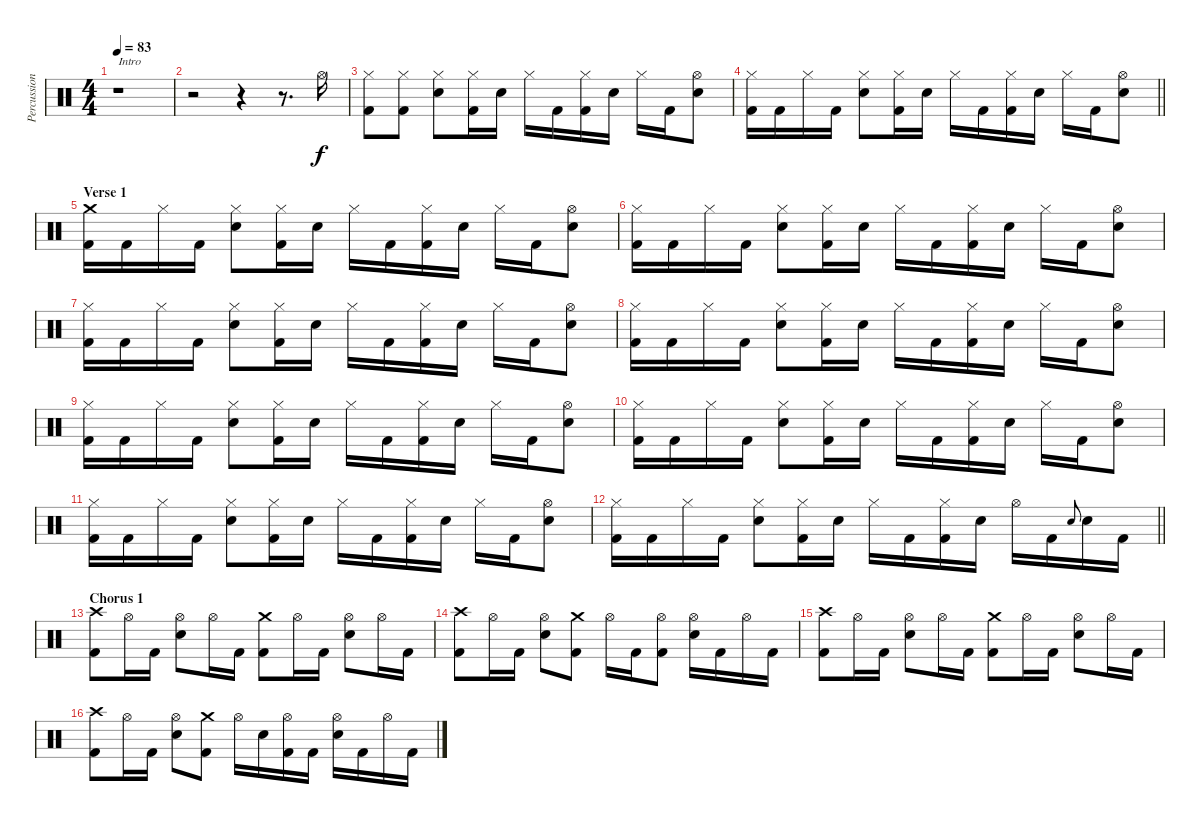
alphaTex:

\track ("Percussion" "Percussion") {instrument percussion}
\staff {score}
\articulation defaults
\ts (4 4)
\tempo 83
\clef neutral
\ks c
r.1{txt "Intro" dy f} |
r.2 r.4 r.8{d} "Hi-Hat (open)".16 |
("Hi-Hat (closed)" "Kick (hit) 2").8 ("Hi-Hat (closed)" "Kick (hit) 2").8 ("Hi-Hat (closed)" "Electric Snare (hit)").8 ("Hi-Hat (closed)" "Kick (hit) 2").16 "Electric Snare (hit)".16 "Hi-Hat (closed)".16 "Kick (hit) 2".16 ("Hi-Hat (closed)" "Kick (hit) 2").16 "Electric Snare (hit)".16 "Hi-Hat (closed)".16 "Kick (hit) 2".16 ("Hi-Hat (open)" "Electric Snare (hit)").8 |
\barLineRight lightlight
("Hi-Hat (closed)" "Kick (hit) 2").16 "Kick (hit) 2".16 "Hi-Hat (closed)".16 "Kick (hit) 2".16 ("Hi-Hat (closed)" "Electric Snare (hit)").8 ("Hi-Hat (closed)" "Kick (hit) 2").16 "Electric Snare (hit)".16 "Hi-Hat (closed)".16 "Kick (hit) 2".16 ("Hi-Hat (closed)" "Kick (hit) 2").16 "Electric Snare (hit)".16 "Hi-Hat (closed)".16 "Kick (hit) 2".16 ("Hi-Hat (open)" "Electric Snare (hit)").8 |
\section ("" "Verse 1")
("Crash medium (hit)" "Kick (hit) 2").16 "Kick (hit) 2".16 "Hi-Hat (closed)".16 "Kick (hit) 2".16 ("Hi-Hat (closed)" "Electric Snare (hit)").8 ("Hi-Hat (closed)" "Kick (hit) 2").16 "Electric Snare (hit)".16 "Hi-Hat (closed)".16 "Kick (hit) 2".16 ("Hi-Hat (closed)" "Kick (hit) 2").16 "Electric Snare (hit)".16 "Hi-Hat (closed)".16 "Kick (hit) 2".16 ("Hi-Hat (open)" "Electric Snare (hit)").8 |
("Hi-Hat (closed)" "Kick (hit) 2").16 "Kick (hit) 2".16 "Hi-Hat (closed)".16 "Kick (hit) 2".16 ("Hi-Hat (closed)" "Electric Snare (hit)").8 ("Hi-Hat (closed)" "Kick (hit) 2").16 "Electric Snare (hit)".16 "Hi-Hat (closed)".16 "Kick (hit) 2".16 ("Hi-Hat (closed)" "Kick (hit) 2").16 "Electric Snare (hit)".16 "Hi-Hat (closed)".16 "Kick (hit) 2".16 ("Hi-Hat (open)" "Electric Snare (hit)").8 |
("Hi-Hat (closed)" "Kick (hit) 2").16 "Kick (hit) 2".16 "Hi-Hat (closed)".16 "Kick (hit) 2".16 ("Hi-Hat (closed)" "Electric Snare (hit)").8 ("Hi-Hat (closed)" "Kick (hit) 2").16 "Electric Snare (hit)".16 "Hi-Hat (closed)".16 "Kick (hit) 2".16 ("Hi-Hat (closed)" "Kick (hit) 2").16 "Electric Snare (hit)".16 "Hi-Hat (closed)".16 "Kick (hit) 2".16 ("Hi-Hat (open)" "Electric Snare (hit)").8 |
("Hi-Hat (closed)" "Kick (hit) 2").16 "Kick (hit) 2".16 "Hi-Hat (closed)".16 "Kick (hit) 2".16 ("Hi-Hat (closed)" "Electric Snare (hit)").8 ("Hi-Hat (closed)" "Kick (hit) 2").16 "Electric Snare (hit)".16 "Hi-Hat (closed)".16 "Kick (hit) 2".16 ("Hi-Hat (closed)" "Kick (hit) 2").16 "Electric Snare (hit)".16 "Hi-Hat (closed)".16 "Kick (hit) 2".16 ("Hi-Hat (open)" "Electric Snare (hit)").8 |
("Hi-Hat (closed)" "Kick (hit) 2").16 "Kick (hit) 2".16 "Hi-Hat (closed)".16 "Kick (hit) 2".16 ("Hi-Hat (closed)" "Electric Snare (hit)").8 ("Hi-Hat (closed)" "Kick (hit) 2").16 "Electric Snare (hit)".16 "Hi-Hat (closed)".16 "Kick (hit) 2".16 ("Hi-Hat (closed)" "Kick (hit) 2").16 "Electric Snare (hit)".16 "Hi-Hat (closed)".16 "Kick (hit) 2".16 ("Hi-Hat (open)" "Electric Snare (hit)").8 |
("Hi-Hat (closed)" "Kick (hit) 2").16 "Kick (hit) 2".16 "Hi-Hat (closed)".16 "Kick (hit) 2".16 ("Hi-Hat (closed)" "Electric Snare (hit)").8 ("Hi-Hat (closed)" "Kick (hit) 2").16 "Electric Snare (hit)".16 "Hi-Hat (closed)".16 "Kick (hit) 2".16 ("Hi-Hat (closed)" "Kick (hit) 2").16 "Electric Snare (hit)".16 "Hi-Hat (closed)".16 "Kick (hit) 2".16 ("Hi-Hat (open)" "Electric Snare (hit)").8 |
("Hi-Hat (closed)" "Kick (hit) 2").16 "Kick (hit) 2".16 "Hi-Hat (closed)".16 "Kick (hit) 2".16 ("Hi-Hat (closed)" "Electric Snare (hit)").8 ("Hi-Hat (closed)" "Kick (hit) 2").16 "Electric Snare (hit)".16 "Hi-Hat (closed)".16 "Kick (hit) 2".16 ("Hi-Hat (closed)" "Kick (hit) 2").16 "Electric Snare (hit)".16 "Hi-Hat (closed)".16 "Kick (hit) 2".16 ("Hi-Hat (open)" "Electric Snare (hit)").8 |
\barLineRight lightlight
("Hi-Hat (closed)" "Kick (hit) 2").16 "Kick (hit) 2".16 "Hi-Hat (closed)".16 "Kick (hit) 2".16 ("Hi-Hat (closed)" "Electric Snare (hit)").8 ("Hi-Hat (closed)" "Kick (hit) 2").16 "Electric Snare (hit)".16 "Hi-Hat (closed)".16 "Kick (hit) 2".16 ("Hi-Hat (closed)" "Kick (hit) 2").16 "Electric Snare (hit)".16 "Hi-Hat (open)".16 "Kick (hit) 2".16 "Electric Snare (hit)".8{gr onbeat} "Electric Snare (hit)".16 "Kick (hit) 2".16 |
\section ("" "Chorus 1")
("Crash high (hit)" "Kick (hit) 2").8 "Hi-Hat (open)".16 "Kick (hit) 2".16 ("Hi-Hat (open)" "Electric Snare (hit)").8 "Hi-Hat (open)".16 "Kick (hit) 2".16 ("Crash medium (hit)" "Kick (hit) 2").8 "Hi-Hat (open)".16 "Kick (hit) 2".16 ("Hi-Hat (open)" "Electric Snare (hit)").8 "Hi-Hat (open)".16 "Kick (hit) 2".16 |
("Crash high (hit)" "Kick (hit) 2").8 "Hi-Hat (open)".16 "Kick (hit) 2".16 ("Hi-Hat (open)" "Electric Snare (hit)").8 ("Crash medium (hit)" "Kick (hit) 2").8 "Hi-Hat (open)".16 "Kick (hit) 2".16 ("Hi-Hat (open)" "Kick (hit) 2").8 ("Hi-Hat (open)" "Electric Snare (hit)").16 "Kick (hit) 2".16 "Hi-Hat (open)".16 "Kick (hit) 2".16 |
("Crash high (hit)" "Kick (hit) 2").8 "Hi-Hat (open)".16 "Kick (hit) 2".16 ("Hi-Hat (open)" "Electric Snare (hit)").8 "Hi-Hat (open)".16 "Kick (hit) 2".16 ("Crash medium (hit)" "Kick (hit) 2").8 "Hi-Hat (open)".16 "Kick (hit) 2".16 ("Hi-Hat (open)" "Electric Snare (hit)").8 "Hi-Hat (open)".16 "Kick (hit) 2".16 |
("Crash high (hit)" "Kick (hit) 2").8 "Hi-Hat (open)".16 "Kick (hit) 2".16 ("Hi-Hat (open)" "Electric Snare (hit)").8 ("Crash medium (hit)" "Kick (hit) 2").8 "Hi-Hat (open)".16 "Electric Snare (hit)".16 ("Hi-Hat (open)" "Kick (hit) 2").16 "Kick (hit) 2".16 ("Hi-Hat (open)" "Electric Snare (hit)").16 "Kick (hit) 2".16 "Hi-Hat (open)".16 "Kick (hit) 2".16
